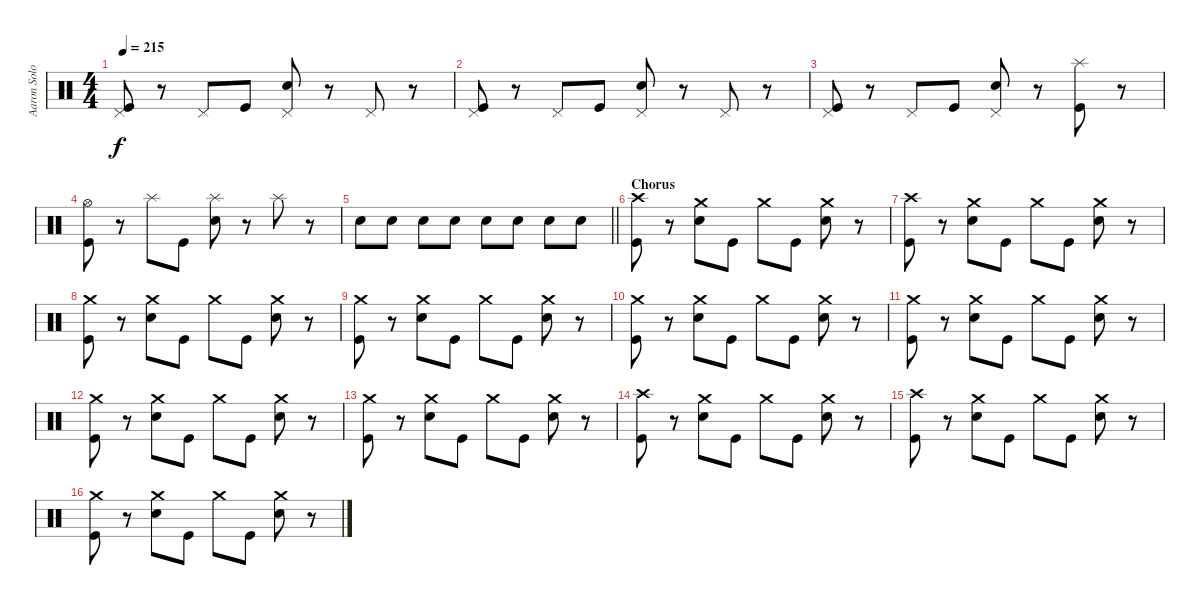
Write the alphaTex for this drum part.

\track ("Aaron Solowoniuk" "Aaron Solo") {instrument percussion}
\staff {score}
\articulation defaults
\ts (4 4)
\tempo 215
\clef neutral
\ks c
("Pedal Hi-Hat (hit)" "Kick (hit)").8{dy f} r.8 "Pedal Hi-Hat (hit)".8 "Kick (hit)".8 ("Pedal Hi-Hat (hit)" "Electric Snare (hit)").8 r.8 "Pedal Hi-Hat (hit)".8 r.8 |
("Pedal Hi-Hat (hit)" "Kick (hit)").8 r.8 "Pedal Hi-Hat (hit)".8 "Kick (hit)".8 ("Pedal Hi-Hat (hit)" "Electric Snare (hit)").8 r.8 "Pedal Hi-Hat (hit)".8 r.8 |
("Pedal Hi-Hat (hit)" "Kick (hit)").8 r.8 "Pedal Hi-Hat (hit)".8 "Kick (hit)".8 ("Pedal Hi-Hat (hit)" "Electric Snare (hit)").8 r.8 ("Splash (hit)" "Kick (hit)").8 r.8 |
("Hi-Hat (open)" "Kick (hit)").8 r.8 "Splash (hit)".8 "Kick (hit)".8 ("Splash (hit)" "Electric Snare (hit)").8 r.8 "Splash (hit)".8 r.8 |
\barLineRight lightlight "Electric Snare (hit)".8 "Electric Snare (hit)".8 "Electric Snare (hit)".8 "Electric Snare (hit)".8 "Electric Snare (hit)".8 "Electric Snare (hit)".8 "Electric Snare (hit)".8 "Electric Snare (hit)".8
|
\section ("" "Chorus")
("Crash high (hit)" "Kick (hit)").8 r.8 ("Crash medium (hit)" "Electric Snare (hit)").8 "Kick (hit)".8 "Crash medium (hit)".8 "Kick (hit)".8 ("Crash medium (hit)" "Electric Snare (hit)").8 r.8 |
("Crash high (hit)" "Kick (hit)").8 r.8 ("Crash medium (hit)" "Electric Snare (hit)").8 "Kick (hit)".8 "Crash medium (hit)".8 "Kick (hit)".8 ("Crash medium (hit)" "Electric Snare (hit)").8 r.8 |
("Crash medium (hit)" "Kick (hit)").8 r.8 ("Crash medium (hit)" "Electric Snare (hit)").8 "Kick (hit)".8 "Crash medium (hit)".8 "Kick (hit)".8 ("Crash medium (hit)" "Electric Snare (hit)").8 r.8 |
("Crash medium (hit)" "Kick (hit)").8 r.8 ("Crash medium (hit)" "Electric Snare (hit)").8 "Kick (hit)".8 "Crash medium (hit)".8 "Kick (hit)".8 ("Crash medium (hit)" "Electric Snare (hit)").8 r.8 |
("Crash medium (hit)" "Kick (hit)").8 r.8 ("Crash medium (hit)" "Electric Snare (hit)").8 "Kick (hit)".8 "Crash medium (hit)".8 "Kick (hit)".8 ("Crash medium (hit)" "Electric Snare (hit)").8 r.8 |
("Crash medium (hit)" "Kick (hit)").8 r.8 ("Crash medium (hit)" "Electric Snare (hit)").8 "Kick (hit)".8 "Crash medium (hit)".8 "Kick (hit)".8 ("Crash medium (hit)" "Electric Snare (hit)").8 r.8 |
("Crash medium (hit)" "Kick (hit)").8 r.8 ("Crash medium (hit)" "Electric Snare (hit)").8 "Kick (hit)".8 "Crash medium (hit)".8 "Kick (hit)".8 ("Crash medium (hit)" "Electric Snare (hit)").8 r.8 |
("Crash medium (hit)" "Kick (hit)").8 r.8 ("Crash medium (hit)" "Electric Snare (hit)").8 "Kick (hit)".8 "Crash medium (hit)".8 "Kick (hit)".8 ("Crash medium (hit)" "Electric Snare (hit)").8 r.8 |
("Crash high (hit)" "Kick (hit)").8 r.8 ("Crash medium (hit)" "Electric Snare (hit)").8 "Kick (hit)".8 "Crash medium (hit)".8 "Kick (hit)".8 ("Crash medium (hit)" "Electric Snare (hit)").8 r.8 |
("Crash high (hit)" "Kick (hit)").8 r.8 ("Crash medium (hit)" "Electric Snare (hit)").8 "Kick (hit)".8 "Crash medium (hit)".8 "Kick (hit)".8 ("Crash medium (hit)" "Electric Snare (hit)").8 r.8 |
("Crash medium (hit)" "Kick (hit)").8 r.8 ("Crash medium (hit)" "Electric Snare (hit)").8 "Kick (hit)".8 "Crash medium (hit)".8 "Kick (hit)".8 ("Crash medium (hit)" "Electric Snare (hit)").8 r.8
